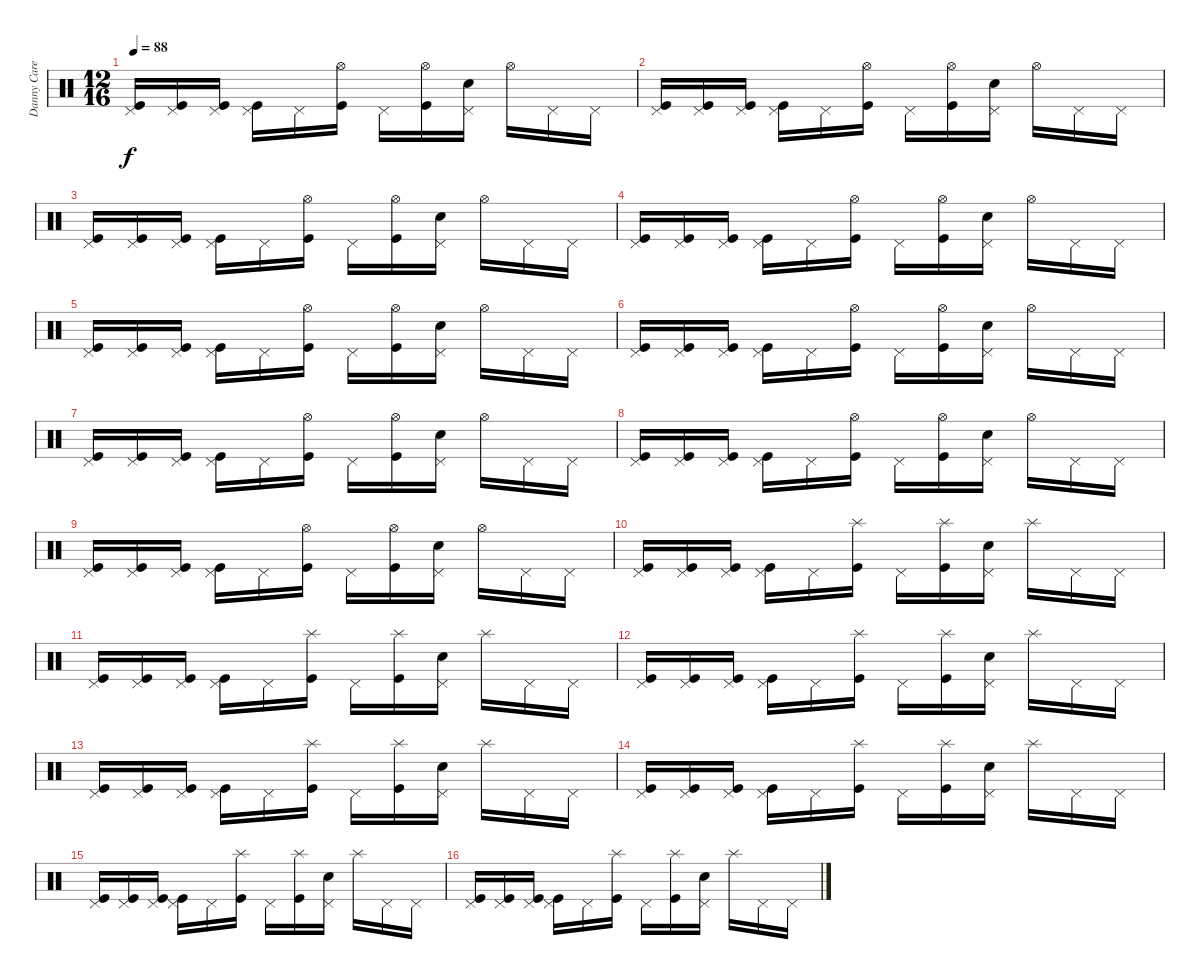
\track ("Danny Carey" "Danny Care") {instrument percussion}
\staff {score}
\articulation defaults
\ts (12 16)
\tempo 88
\clef neutral
\ks c
("Pedal Hi-Hat (hit)" "Kick (hit)").16{dy f} ("Pedal Hi-Hat (hit)" "Kick (hit)").16 ("Pedal Hi-Hat (hit)" "Kick (hit)").16 ("Pedal Hi-Hat (hit)" "Kick (hit)").16 "Pedal Hi-Hat (hit)".16 ("Hi-Hat (open)" "Kick (hit)").16 "Pedal Hi-Hat (hit)".16 ("Hi-Hat (open)" "Kick (hit)").16 ("Pedal Hi-Hat (hit)" "Electric Snare (hit)").16 "Hi-Hat (open)".16 "Pedal Hi-Hat (hit)".16 "Pedal Hi-Hat (hit)".16 |
("Pedal Hi-Hat (hit)" "Kick (hit)").16 ("Pedal Hi-Hat (hit)" "Kick (hit)").16 ("Pedal Hi-Hat (hit)" "Kick (hit)").16 ("Pedal Hi-Hat (hit)" "Kick (hit)").16 "Pedal Hi-Hat (hit)".16 ("Hi-Hat (open)" "Kick (hit)").16 "Pedal Hi-Hat (hit)".16 ("Hi-Hat (open)" "Kick (hit)").16 ("Pedal Hi-Hat (hit)" "Electric Snare (hit)").16 "Hi-Hat (open)".16 "Pedal Hi-Hat (hit)".16 "Pedal Hi-Hat (hit)".16 |
("Pedal Hi-Hat (hit)" "Kick (hit)").16 ("Pedal Hi-Hat (hit)" "Kick (hit)").16 ("Pedal Hi-Hat (hit)" "Kick (hit)").16 ("Pedal Hi-Hat (hit)" "Kick (hit)").16 "Pedal Hi-Hat (hit)".16 ("Hi-Hat (open)" "Kick (hit)").16 "Pedal Hi-Hat (hit)".16 ("Hi-Hat (open)" "Kick (hit)").16 ("Pedal Hi-Hat (hit)" "Electric Snare (hit)").16 "Hi-Hat (open)".16 "Pedal Hi-Hat (hit)".16 "Pedal Hi-Hat (hit)".16 |
("Pedal Hi-Hat (hit)" "Kick (hit)").16 ("Pedal Hi-Hat (hit)" "Kick (hit)").16 ("Pedal Hi-Hat (hit)" "Kick (hit)").16 ("Pedal Hi-Hat (hit)" "Kick (hit)").16 "Pedal Hi-Hat (hit)".16 ("Hi-Hat (open)" "Kick (hit)").16 "Pedal Hi-Hat (hit)".16 ("Hi-Hat (open)" "Kick (hit)").16 ("Pedal Hi-Hat (hit)" "Electric Snare (hit)").16 "Hi-Hat (open)".16 "Pedal Hi-Hat (hit)".16 "Pedal Hi-Hat (hit)".16 |
("Pedal Hi-Hat (hit)" "Kick (hit)").16 ("Pedal Hi-Hat (hit)" "Kick (hit)").16 ("Pedal Hi-Hat (hit)" "Kick (hit)").16 ("Pedal Hi-Hat (hit)" "Kick (hit)").16 "Pedal Hi-Hat (hit)".16 ("Hi-Hat (open)" "Kick (hit)").16 "Pedal Hi-Hat (hit)".16 ("Hi-Hat (open)" "Kick (hit)").16 ("Pedal Hi-Hat (hit)" "Electric Snare (hit)").16 "Hi-Hat (open)".16 "Pedal Hi-Hat (hit)".16 "Pedal Hi-Hat (hit)".16 |
("Pedal Hi-Hat (hit)" "Kick (hit)").16 ("Pedal Hi-Hat (hit)" "Kick (hit)").16 ("Pedal Hi-Hat (hit)" "Kick (hit)").16 ("Pedal Hi-Hat (hit)" "Kick (hit)").16 "Pedal Hi-Hat (hit)".16 ("Hi-Hat (open)" "Kick (hit)").16 "Pedal Hi-Hat (hit)".16 ("Hi-Hat (open)" "Kick (hit)").16 ("Pedal Hi-Hat (hit)" "Electric Snare (hit)").16 "Hi-Hat (open)".16 "Pedal Hi-Hat (hit)".16 "Pedal Hi-Hat (hit)".16 |
("Pedal Hi-Hat (hit)" "Kick (hit)").16 ("Pedal Hi-Hat (hit)" "Kick (hit)").16 ("Pedal Hi-Hat (hit)" "Kick (hit)").16 ("Pedal Hi-Hat (hit)" "Kick (hit)").16 "Pedal Hi-Hat (hit)".16 ("Hi-Hat (open)" "Kick (hit)").16 "Pedal Hi-Hat (hit)".16 ("Hi-Hat (open)" "Kick (hit)").16 ("Pedal Hi-Hat (hit)" "Electric Snare (hit)").16 "Hi-Hat (open)".16 "Pedal Hi-Hat (hit)".16 "Pedal Hi-Hat (hit)".16 |
("Pedal Hi-Hat (hit)" "Kick (hit)").16 ("Pedal Hi-Hat (hit)" "Kick (hit)").16 ("Pedal Hi-Hat (hit)" "Kick (hit)").16 ("Pedal Hi-Hat (hit)" "Kick (hit)").16 "Pedal Hi-Hat (hit)".16 ("Hi-Hat (open)" "Kick (hit)").16 "Pedal Hi-Hat (hit)".16 ("Hi-Hat (open)" "Kick (hit)").16 ("Pedal Hi-Hat (hit)" "Electric Snare (hit)").16 "Hi-Hat (open)".16 "Pedal Hi-Hat (hit)".16 "Pedal Hi-Hat (hit)".16 |
("Pedal Hi-Hat (hit)" "Kick (hit)").16 ("Pedal Hi-Hat (hit)" "Kick (hit)").16 ("Pedal Hi-Hat (hit)" "Kick (hit)").16 ("Pedal Hi-Hat (hit)" "Kick (hit)").16 "Pedal Hi-Hat (hit)".16 ("Hi-Hat (open)" "Kick (hit)").16 "Pedal Hi-Hat (hit)".16 ("Hi-Hat (open)" "Kick (hit)").16 ("Pedal Hi-Hat (hit)" "Electric Snare (hit)").16 "Hi-Hat (open)".16 "Pedal Hi-Hat (hit)".16 "Pedal Hi-Hat (hit)".16 |
("Pedal Hi-Hat (hit)" "Kick (hit)").16 ("Pedal Hi-Hat (hit)" "Kick (hit)").16 ("Pedal Hi-Hat (hit)" "Kick (hit)").16 ("Pedal Hi-Hat (hit)" "Kick (hit)").16 "Pedal Hi-Hat (hit)".16 ("Splash (hit)" "Kick (hit)").16 "Pedal Hi-Hat (hit)".16 ("Splash (hit)" "Kick (hit)").16 ("Pedal Hi-Hat (hit)" "Electric Snare (hit)").16 "Splash (hit)".16 "Pedal Hi-Hat (hit)".16 "Pedal Hi-Hat (hit)".16 |
("Pedal Hi-Hat (hit)" "Kick (hit)").16 ("Pedal Hi-Hat (hit)" "Kick (hit)").16 ("Pedal Hi-Hat (hit)" "Kick (hit)").16 ("Pedal Hi-Hat (hit)" "Kick (hit)").16 "Pedal Hi-Hat (hit)".16 ("Splash (hit)" "Kick (hit)").16 "Pedal Hi-Hat (hit)".16 ("Splash (hit)" "Kick (hit)").16 ("Pedal Hi-Hat (hit)" "Electric Snare (hit)").16 "Splash (hit)".16 "Pedal Hi-Hat (hit)".16 "Pedal Hi-Hat (hit)".16 |
("Pedal Hi-Hat (hit)" "Kick (hit)").16 ("Pedal Hi-Hat (hit)" "Kick (hit)").16 ("Pedal Hi-Hat (hit)" "Kick (hit)").16 ("Pedal Hi-Hat (hit)" "Kick (hit)").16 "Pedal Hi-Hat (hit)".16 ("Splash (hit)" "Kick (hit)").16 "Pedal Hi-Hat (hit)".16 ("Splash (hit)" "Kick (hit)").16 ("Pedal Hi-Hat (hit)" "Electric Snare (hit)").16 "Splash (hit)".16 "Pedal Hi-Hat (hit)".16 "Pedal Hi-Hat (hit)".16 |
("Pedal Hi-Hat (hit)" "Kick (hit)").16 ("Pedal Hi-Hat (hit)" "Kick (hit)").16 ("Pedal Hi-Hat (hit)" "Kick (hit)").16 ("Pedal Hi-Hat (hit)" "Kick (hit)").16 "Pedal Hi-Hat (hit)".16 ("Splash (hit)" "Kick (hit)").16 "Pedal Hi-Hat (hit)".16 ("Splash (hit)" "Kick (hit)").16 ("Pedal Hi-Hat (hit)" "Electric Snare (hit)").16 "Splash (hit)".16 "Pedal Hi-Hat (hit)".16 "Pedal Hi-Hat (hit)".16 |
("Pedal Hi-Hat (hit)" "Kick (hit)").16 ("Pedal Hi-Hat (hit)" "Kick (hit)").16 ("Pedal Hi-Hat (hit)" "Kick (hit)").16 ("Pedal Hi-Hat (hit)" "Kick (hit)").16 "Pedal Hi-Hat (hit)".16 ("Splash (hit)" "Kick (hit)").16 "Pedal Hi-Hat (hit)".16 ("Splash (hit)" "Kick (hit)").16 ("Pedal Hi-Hat (hit)" "Electric Snare (hit)").16 "Splash (hit)".16 "Pedal Hi-Hat (hit)".16 "Pedal Hi-Hat (hit)".16 |
("Pedal Hi-Hat (hit)" "Kick (hit)").16 ("Pedal Hi-Hat (hit)" "Kick (hit)").16 ("Pedal Hi-Hat (hit)" "Kick (hit)").16 ("Pedal Hi-Hat (hit)" "Kick (hit)").16 "Pedal Hi-Hat (hit)".16 ("Splash (hit)" "Kick (hit)").16 "Pedal Hi-Hat (hit)".16 ("Splash (hit)" "Kick (hit)").16 ("Pedal Hi-Hat (hit)" "Electric Snare (hit)").16 "Splash (hit)".16 "Pedal Hi-Hat (hit)".16 "Pedal Hi-Hat (hit)".16 |
("Pedal Hi-Hat (hit)" "Kick (hit)").16 ("Pedal Hi-Hat (hit)" "Kick (hit)").16 ("Pedal Hi-Hat (hit)" "Kick (hit)").16 ("Pedal Hi-Hat (hit)" "Kick (hit)").16 "Pedal Hi-Hat (hit)".16 ("Splash (hit)" "Kick (hit)").16 "Pedal Hi-Hat (hit)".16 ("Splash (hit)" "Kick (hit)").16 ("Pedal Hi-Hat (hit)" "Electric Snare (hit)").16 "Splash (hit)".16 "Pedal Hi-Hat (hit)".16 "Pedal Hi-Hat (hit)".16
